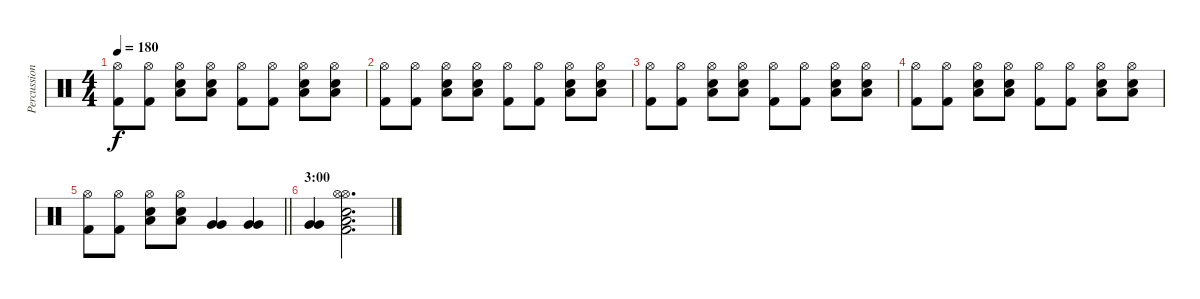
\track ("Percussioni" "Percussion") {instrument percussion}
\staff {score}
\articulation defaults
\ts (4 4)
\tempo 180
\clef neutral
\ks c
("Hi-Hat (open)" "Kick (hit) 2").8{dy f} ("Hi-Hat (open)" "Kick (hit) 2").8 ("Hi-Hat (open)" "Electric Snare (hit)" "Low Floor Tom (hit)").8 ("Hi-Hat (open)" "Electric Snare (hit)" "Low Floor Tom (hit)").8 ("Hi-Hat (open)" "Kick (hit) 2").8 ("Hi-Hat (open)" "Kick (hit) 2").8 ("Hi-Hat (open)" "Electric Snare (hit)" "Low Floor Tom (hit)").8 ("Hi-Hat (open)" "Electric Snare (hit)" "Low Floor Tom (hit)").8 |
("Hi-Hat (open)" "Kick (hit) 2").8 ("Hi-Hat (open)" "Kick (hit) 2").8 ("Hi-Hat (open)" "Electric Snare (hit)" "Low Floor Tom (hit)").8 ("Hi-Hat (open)" "Electric Snare (hit)" "Low Floor Tom (hit)").8 ("Hi-Hat (open)" "Kick (hit) 2").8 ("Hi-Hat (open)" "Kick (hit) 2").8 ("Hi-Hat (open)" "Electric Snare (hit)" "Low Floor Tom (hit)").8 ("Hi-Hat (open)" "Electric Snare (hit)" "Low Floor Tom (hit)").8 |
("Hi-Hat (open)" "Kick (hit) 2").8 ("Hi-Hat (open)" "Kick (hit) 2").8 ("Hi-Hat (open)" "Electric Snare (hit)" "Low Floor Tom (hit)").8 ("Hi-Hat (open)" "Electric Snare (hit)" "Low Floor Tom (hit)").8 ("Hi-Hat (open)" "Kick (hit) 2").8 ("Hi-Hat (open)" "Kick (hit) 2").8 ("Hi-Hat (open)" "Electric Snare (hit)" "Low Floor Tom (hit)").8 ("Hi-Hat (open)" "Electric Snare (hit)" "Low Floor Tom (hit)").8 |
("Hi-Hat (open)" "Kick (hit) 2").8 ("Hi-Hat (open)" "Kick (hit) 2").8 ("Hi-Hat (open)" "Electric Snare (hit)" "Low Floor Tom (hit)").8 ("Hi-Hat (open)" "Electric Snare (hit)" "Low Floor Tom (hit)").8 ("Hi-Hat (open)" "Kick (hit) 2").8 ("Hi-Hat (open)" "Kick (hit) 2").8 ("Hi-Hat (open)" "Electric Snare (hit)" "Low Floor Tom (hit)").8 ("Hi-Hat (open)" "Electric Snare (hit)" "Low Floor Tom (hit)").8 |
\barLineRight lightlight
("Hi-Hat (open)" "Kick (hit) 2").8 ("Hi-Hat (open)" "Kick (hit) 2").8 ("Hi-Hat (open)" "Electric Snare (hit)" "Low Floor Tom (hit)").8 ("Hi-Hat (open)" "Electric Snare (hit)" "Low Floor Tom (hit)").8 ("Very Low Tom (hit)" "Very Low Tom (hit)").4 ("Very Low Tom (hit)" "Very Low Tom (hit)").4 |
\section ("" "3:00")
("Very Low Tom (hit)" "Very Low Tom (hit)").4 ("Kick (hit) 2" "Electric Snare (hit)" "Low Floor Tom (hit)" "Hi-Hat (open)" "Hi-Hat (open)").2{d}
